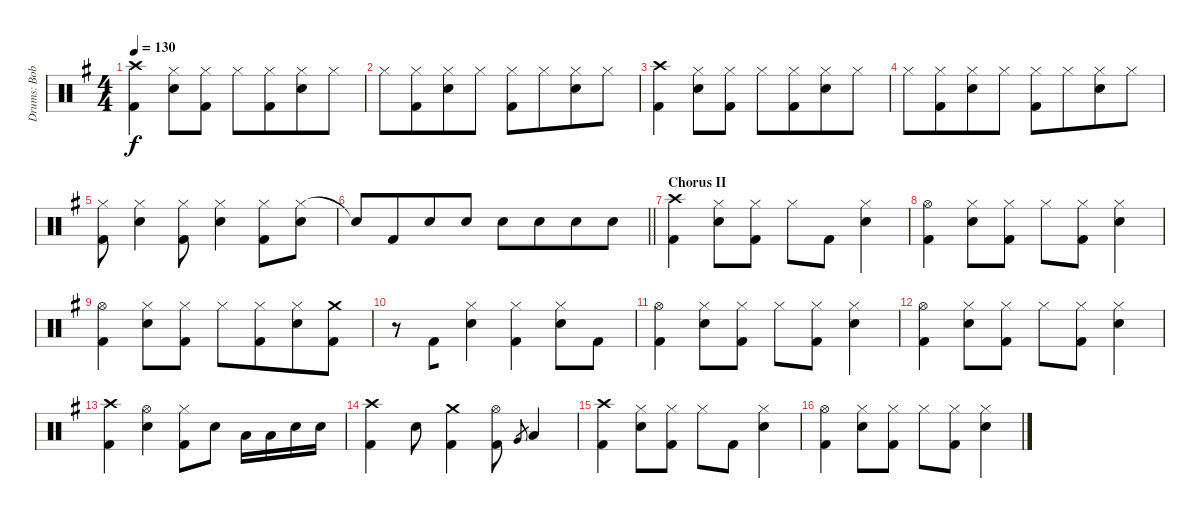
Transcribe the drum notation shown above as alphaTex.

\track ("Drums: Bobby" "Drums: Bob") {instrument percussion}
\staff {score}
\articulation defaults
\ts (4 4)
\tempo 130
\clef neutral
\ks g
("Crash high (hit)" "Kick (hit) 2").4{dy f beam merge} ("Hi-Hat (closed)" "Snare (hit) 2").8 ("Hi-Hat (closed)" "Kick (hit) 2").8 "Hi-Hat (closed)".8 ("Hi-Hat (closed)" "Kick (hit) 2").8{beam merge} ("Hi-Hat (closed)" "Snare (hit) 2").8 "Hi-Hat (closed)".8 |
"Hi-Hat (closed)".8 ("Hi-Hat (closed)" "Kick (hit) 2").8{beam merge} ("Hi-Hat (closed)" "Snare (hit) 2").8 "Hi-Hat (closed)".8 ("Hi-Hat (closed)" "Kick (hit) 2").8 "Hi-Hat (closed)".8{beam merge} ("Hi-Hat (closed)" "Snare (hit) 2").8 "Hi-Hat (closed)".8 |
("Crash high (hit)" "Kick (hit) 2").4{beam merge} ("Hi-Hat (closed)" "Snare (hit) 2").8 ("Hi-Hat (closed)" "Kick (hit) 2").8 "Hi-Hat (closed)".8 ("Hi-Hat (closed)" "Kick (hit) 2").8{beam merge} ("Hi-Hat (closed)" "Snare (hit) 2").8 "Hi-Hat (closed)".8 |
"Hi-Hat (closed)".8 ("Hi-Hat (closed)" "Kick (hit) 2").8{beam merge} ("Hi-Hat (closed)" "Snare (hit) 2").8 "Hi-Hat (closed)".8 ("Hi-Hat (closed)" "Kick (hit) 2").8 "Hi-Hat (closed)".8{beam merge} ("Hi-Hat (closed)" "Snare (hit) 2").8 "Hi-Hat (closed)".8 |
("Hi-Hat (closed)" "Kick (hit) 2").8 ("Hi-Hat (closed)" "Snare (hit) 2").4 ("Hi-Hat (closed)" "Kick (hit) 2").8 ("Hi-Hat (closed)" "Snare (hit) 2").4 ("Hi-Hat (closed)" "Kick (hit) 2").8 ("Hi-Hat (closed)" "Snare (hit) 2").8 |
\barLineRight lightlight "Snare (hit)"{t}.8 "Kick (hit) 2".8{beam merge} "Snare (hit) 2".8 "Snare (hit) 2".8 "Snare (hit) 2".8 "Snare (hit) 2".8{beam merge} "Snare (hit) 2".8 "Snare (hit) 2".8
|
\section ("" "Chorus II")
("Crash high (hit)" "Kick (hit) 2").4{beam merge} ("Hi-Hat (closed)" "Snare (hit) 2").8 ("Hi-Hat (closed)" "Kick (hit) 2").8 "Hi-Hat (closed)".8 "Kick (hit) 2".8{beam merge} ("Hi-Hat (closed)" "Snare (hit) 2").4 |
("Hi-Hat (open)" "Kick (hit) 2").4{beam merge} ("Hi-Hat (closed)" "Snare (hit) 2").8 ("Hi-Hat (closed)" "Kick (hit) 2").8 "Hi-Hat (closed)".8 ("Hi-Hat (closed)" "Kick (hit) 2").8{beam merge} ("Hi-Hat (closed)" "Snare (hit) 2").4 |
("Hi-Hat (open)" "Kick (hit) 2").4{beam merge} ("Hi-Hat (closed)" "Snare (hit) 2").8 ("Hi-Hat (closed)" "Kick (hit) 2").8 "Hi-Hat (closed)".8 ("Hi-Hat (closed)" "Kick (hit) 2").8{beam merge} ("Hi-Hat (closed)" "Snare (hit) 2").8 ("Crash medium (hit)" "Kick (hit) 2").8 |
r.8 "Kick (hit) 2".8{beam merge} ("Hi-Hat (closed)" "Snare (hit) 2").4 ("Hi-Hat (closed)" "Kick (hit) 2").4{beam merge} ("Hi-Hat (closed)" "Snare (hit) 2").8 "Kick (hit) 2".8 |
("Hi-Hat (open)" "Kick (hit) 2").4{beam merge} ("Hi-Hat (closed)" "Snare (hit) 2").8 ("Hi-Hat (closed)" "Kick (hit) 2").8 "Hi-Hat (closed)".8 ("Hi-Hat (closed)" "Kick (hit) 2").8{beam merge} ("Hi-Hat (closed)" "Snare (hit) 2").4 |
("Hi-Hat (open)" "Kick (hit) 2").4{beam merge} ("Hi-Hat (closed)" "Snare (hit) 2").8 ("Hi-Hat (closed)" "Kick (hit) 2").8 "Hi-Hat (closed)".8 ("Hi-Hat (closed)" "Kick (hit) 2").8{beam merge} ("Hi-Hat (closed)" "Snare (hit) 2").4 |
("Crash high (hit)" "Kick (hit) 2").4 ("Hi-Hat (open)" "Snare (hit) 2").4 ("Hi-Hat (closed)" "Kick (hit) 2").8 "Snare (hit) 2".8 "Low Tom (hit)".16 "Low Tom (hit)".16 "Snare (hit) 2".16 "Snare (hit) 2".16 |
("Crash high (hit)" "Kick (hit) 2").4 "Snare (hit) 2".8 ("Crash medium (hit)" "Kick (hit) 2").4 ("Hi-Hat (open)" "Kick (hit) 2").8 "Very Low Tom (hit)".8{gr} "Low Tom (hit)".4 |
("Crash high (hit)" "Kick (hit) 2").4{beam merge} ("Hi-Hat (closed)" "Snare (hit) 2").8 ("Hi-Hat (closed)" "Kick (hit) 2").8 "Hi-Hat (closed)".8 "Kick (hit) 2".8{beam merge} ("Hi-Hat (closed)" "Snare (hit) 2").4 |
("Hi-Hat (open)" "Kick (hit) 2").4{beam merge} ("Hi-Hat (closed)" "Snare (hit) 2").8 ("Hi-Hat (closed)" "Kick (hit) 2").8 "Hi-Hat (closed)".8 ("Hi-Hat (closed)" "Kick (hit) 2").8{beam merge} ("Hi-Hat (closed)" "Snare (hit) 2").4
